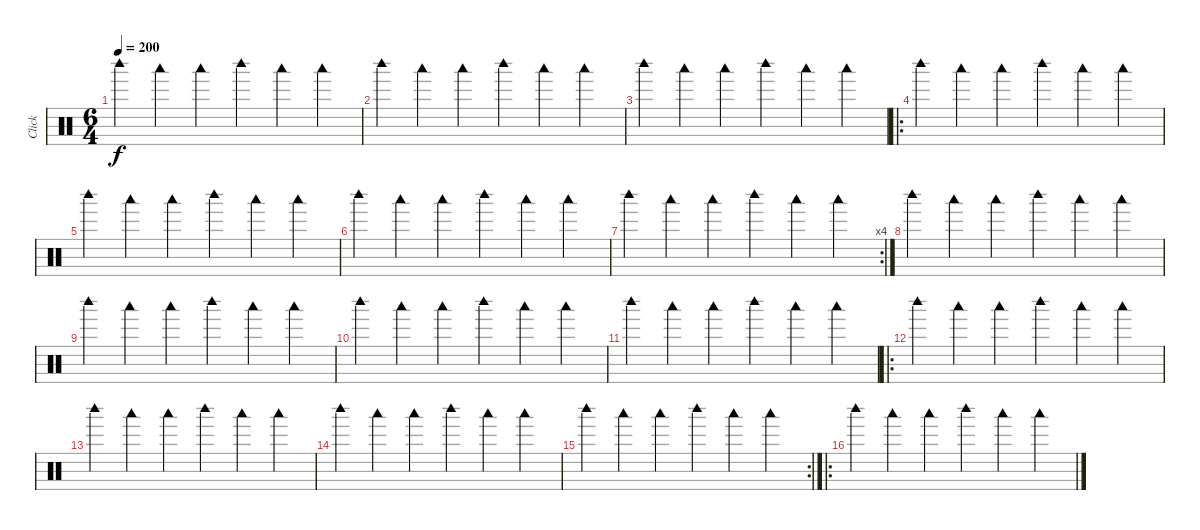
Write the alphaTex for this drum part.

\track ("Click" "Click") {mute instrument percussion}
\staff {score}
\articulation defaults
\ts (6 4)
\tempo 200
\clef neutral
\ks c "Woodblock high (hit)".4{dy f} "Woodblock low (hit)".4 "Woodblock low (hit)".4 "Woodblock high (hit)".4 "Woodblock low (hit)".4 "Woodblock low (hit)".4
|
"Woodblock high (hit)".4 "Woodblock low (hit)".4 "Woodblock low (hit)".4 "Woodblock high (hit)".4 "Woodblock low (hit)".4 "Woodblock low (hit)".4 |
"Woodblock high (hit)".4 "Woodblock low (hit)".4 "Woodblock low (hit)".4 "Woodblock high (hit)".4 "Woodblock low (hit)".4 "Woodblock low (hit)".4 |
\ro "Woodblock high (hit)".4 "Woodblock low (hit)".4 "Woodblock low (hit)".4 "Woodblock high (hit)".4 "Woodblock low (hit)".4 "Woodblock low (hit)".4
|
"Woodblock high (hit)".4 "Woodblock low (hit)".4 "Woodblock low (hit)".4 "Woodblock high (hit)".4 "Woodblock low (hit)".4 "Woodblock low (hit)".4 |
"Woodblock high (hit)".4 "Woodblock low (hit)".4 "Woodblock low (hit)".4 "Woodblock high (hit)".4 "Woodblock low (hit)".4 "Woodblock low (hit)".4 |
\rc 4 "Woodblock high (hit)".4 "Woodblock low (hit)".4 "Woodblock low (hit)".4 "Woodblock high (hit)".4 "Woodblock low (hit)".4 "Woodblock low (hit)".4
|
"Woodblock high (hit)".4 "Woodblock low (hit)".4 "Woodblock low (hit)".4 "Woodblock high (hit)".4 "Woodblock low (hit)".4 "Woodblock low (hit)".4 |
"Woodblock high (hit)".4 "Woodblock low (hit)".4 "Woodblock low (hit)".4 "Woodblock high (hit)".4 "Woodblock low (hit)".4 "Woodblock low (hit)".4 |
"Woodblock high (hit)".4 "Woodblock low (hit)".4 "Woodblock low (hit)".4 "Woodblock high (hit)".4 "Woodblock low (hit)".4 "Woodblock low (hit)".4 |
"Woodblock high (hit)".4 "Woodblock low (hit)".4 "Woodblock low (hit)".4 "Woodblock high (hit)".4 "Woodblock low (hit)".4 "Woodblock low (hit)".4 |
\ro "Woodblock high (hit)".4 "Woodblock low (hit)".4 "Woodblock low (hit)".4 "Woodblock high (hit)".4 "Woodblock low (hit)".4 "Woodblock low (hit)".4
|
"Woodblock high (hit)".4 "Woodblock low (hit)".4 "Woodblock low (hit)".4 "Woodblock high (hit)".4 "Woodblock low (hit)".4 "Woodblock low (hit)".4 |
"Woodblock high (hit)".4 "Woodblock low (hit)".4 "Woodblock low (hit)".4 "Woodblock high (hit)".4 "Woodblock low (hit)".4 "Woodblock low (hit)".4 |
\rc 2 "Woodblock high (hit)".4 "Woodblock low (hit)".4 "Woodblock low (hit)".4 "Woodblock high (hit)".4 "Woodblock low (hit)".4 "Woodblock low (hit)".4
|
\ro "Woodblock high (hit)".4 "Woodblock low (hit)".4 "Woodblock low (hit)".4 "Woodblock high (hit)".4 "Woodblock low (hit)".4 "Woodblock low (hit)".4
